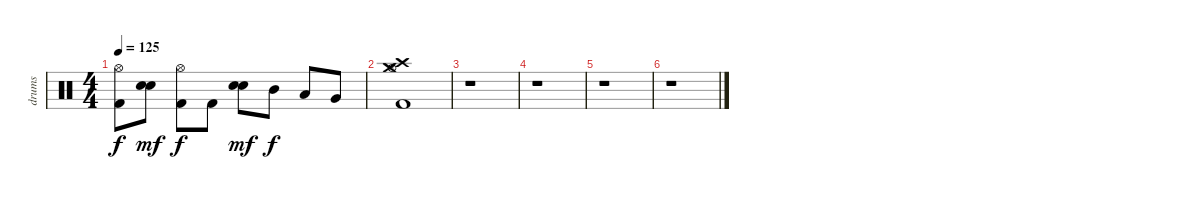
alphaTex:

\track ("drums" "drums") {instrument percussion}
\staff {score}
\articulation defaults
\ts (4 4)
\tempo 125
\clef neutral
\ks c
("Kick (hit) 2" "Hi-Hat (open)").8{dy f} ("Electric Snare (hit)" "Snare (hit) 2").8{dy mf} ("Kick (hit) 2" "Hi-Hat (open)").8{dy f} "Kick (hit) 2".8 ("Electric Snare (hit)" "Snare (hit) 2").8{dy mf} "Mid Tom (hit)".8{dy f} "Low Tom (hit)".8 "Very Low Tom (hit)".8 |
("Kick (hit) 2" "Crash medium (hit)" "Crash high (hit)" "Hi-Hat (open)").1 |
r.1 |
r.1 |
r.1 |
r.1
